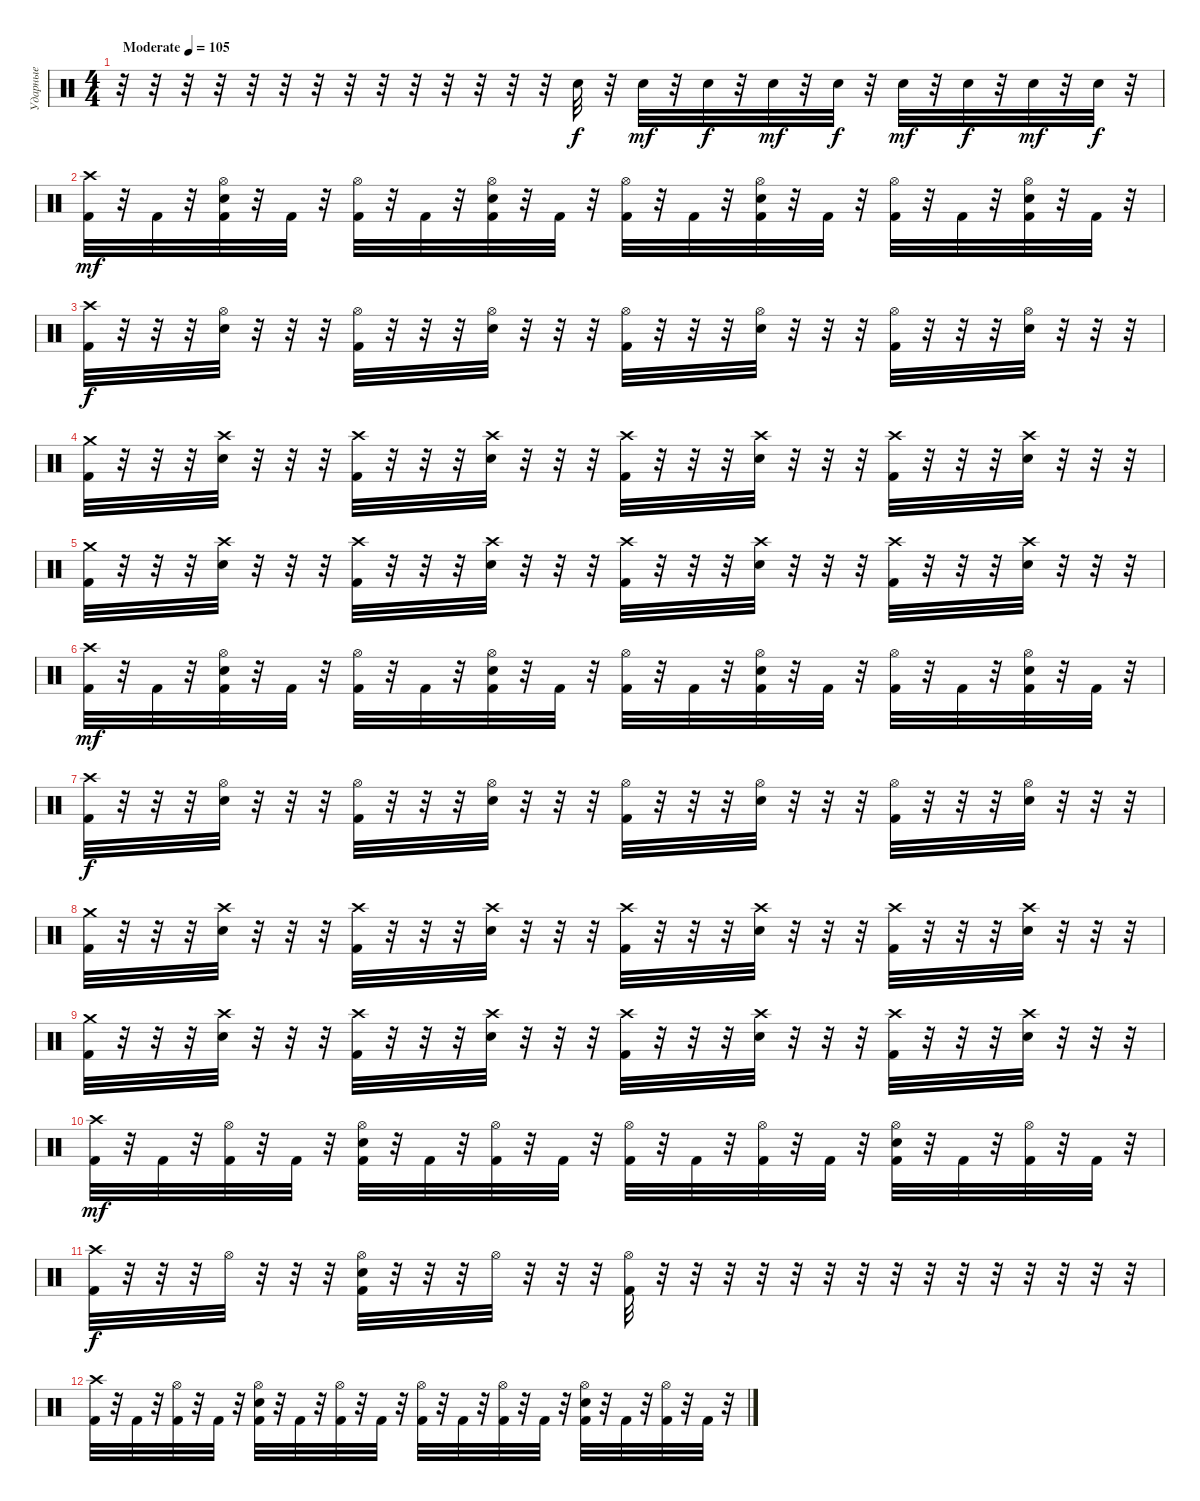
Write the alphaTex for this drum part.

\track ("Ударные" "Ударные") {mute instrument percussion}
\staff {score}
\articulation defaults
\ts (4 4)
\tempo (105 "Moderate")
\clef neutral
\ks c
r.32{dy f} r.32 r.32 r.32 r.32 r.32 r.32 r.32 r.32 r.32 r.32 r.32 r.32 r.32 "Electric Snare (hit)".32 r.32 "Electric Snare (hit)".32{dy mf} r.32 "Electric Snare (hit)".32{dy f} r.32 "Electric Snare (hit)".32{dy mf} r.32 "Electric Snare (hit)".32{dy f} r.32 "Electric Snare (hit)".32{dy mf} r.32 "Electric Snare (hit)".32{dy f} r.32 "Electric Snare (hit)".32{dy mf} r.32 "Electric Snare (hit)".32{dy f} r.32 |
("Crash high (hit)" "Kick (hit) 2").32{dy mf} r.32 "Kick (hit) 2".32 r.32 ("Hi-Hat (open)" "Electric Snare (hit)" "Kick (hit) 2").32 r.32 "Kick (hit) 2".32 r.32 ("Hi-Hat (open)" "Kick (hit) 2").32 r.32 "Kick (hit) 2".32 r.32 ("Hi-Hat (open)" "Electric Snare (hit)" "Kick (hit) 2").32 r.32 "Kick (hit) 2".32 r.32 ("Hi-Hat (open)" "Kick (hit) 2").32 r.32 "Kick (hit) 2".32 r.32 ("Hi-Hat (open)" "Electric Snare (hit)" "Kick (hit) 2").32 r.32 "Kick (hit) 2".32 r.32 ("Hi-Hat (open)" "Kick (hit) 2").32 r.32 "Kick (hit) 2".32 r.32 ("Hi-Hat (open)" "Electric Snare (hit)" "Kick (hit) 2").32 r.32 "Kick (hit) 2".32 r.32 |
("Crash high (hit)" "Kick (hit) 2").32{dy f} r.32 r.32 r.32 ("Hi-Hat (open)" "Electric Snare (hit)").32 r.32 r.32 r.32 ("Hi-Hat (open)" "Kick (hit) 2").32 r.32 r.32 r.32 ("Hi-Hat (open)" "Electric Snare (hit)").32 r.32 r.32 r.32 ("Hi-Hat (open)" "Kick (hit) 2").32 r.32 r.32 r.32 ("Hi-Hat (open)" "Electric Snare (hit)").32 r.32 r.32 r.32 ("Hi-Hat (open)" "Kick (hit) 2").32 r.32 r.32 r.32 ("Hi-Hat (open)" "Electric Snare (hit)").32 r.32 r.32 r.32 |
("Crash medium (hit)" "Kick (hit) 2").32 r.32 r.32 r.32 ("Crash high (hit)" "Electric Snare (hit)").32 r.32 r.32 r.32 ("Crash high (hit)" "Kick (hit) 2").32 r.32 r.32 r.32 ("Crash high (hit)" "Electric Snare (hit)").32 r.32 r.32 r.32 ("Crash high (hit)" "Kick (hit) 2").32 r.32 r.32 r.32 ("Crash high (hit)" "Electric Snare (hit)").32 r.32 r.32 r.32 ("Crash high (hit)" "Kick (hit) 2").32 r.32 r.32 r.32 ("Crash high (hit)" "Electric Snare (hit)").32 r.32 r.32 r.32 |
("Crash medium (hit)" "Kick (hit) 2").32 r.32 r.32 r.32 ("Crash high (hit)" "Electric Snare (hit)").32 r.32 r.32 r.32 ("Crash high (hit)" "Kick (hit) 2").32 r.32 r.32 r.32 ("Crash high (hit)" "Electric Snare (hit)").32 r.32 r.32 r.32 ("Crash high (hit)" "Kick (hit) 2").32 r.32 r.32 r.32 ("Crash high (hit)" "Electric Snare (hit)").32 r.32 r.32 r.32 ("Crash high (hit)" "Kick (hit) 2").32 r.32 r.32 r.32 ("Crash high (hit)" "Electric Snare (hit)").32 r.32 r.32 r.32 |
("Crash high (hit)" "Kick (hit) 2").32{dy mf} r.32 "Kick (hit) 2".32 r.32 ("Hi-Hat (open)" "Electric Snare (hit)" "Kick (hit) 2").32 r.32 "Kick (hit) 2".32 r.32 ("Hi-Hat (open)" "Kick (hit) 2").32 r.32 "Kick (hit) 2".32 r.32 ("Hi-Hat (open)" "Electric Snare (hit)" "Kick (hit) 2").32 r.32 "Kick (hit) 2".32 r.32 ("Hi-Hat (open)" "Kick (hit) 2").32 r.32 "Kick (hit) 2".32 r.32 ("Hi-Hat (open)" "Electric Snare (hit)" "Kick (hit) 2").32 r.32 "Kick (hit) 2".32 r.32 ("Hi-Hat (open)" "Kick (hit) 2").32 r.32 "Kick (hit) 2".32 r.32 ("Hi-Hat (open)" "Electric Snare (hit)" "Kick (hit) 2").32 r.32 "Kick (hit) 2".32 r.32 |
("Crash high (hit)" "Kick (hit) 2").32{dy f} r.32 r.32 r.32 ("Hi-Hat (open)" "Electric Snare (hit)").32 r.32 r.32 r.32 ("Hi-Hat (open)" "Kick (hit) 2").32 r.32 r.32 r.32 ("Hi-Hat (open)" "Electric Snare (hit)").32 r.32 r.32 r.32 ("Hi-Hat (open)" "Kick (hit) 2").32 r.32 r.32 r.32 ("Hi-Hat (open)" "Electric Snare (hit)").32 r.32 r.32 r.32 ("Hi-Hat (open)" "Kick (hit) 2").32 r.32 r.32 r.32 ("Hi-Hat (open)" "Electric Snare (hit)").32 r.32 r.32 r.32 |
("Crash medium (hit)" "Kick (hit) 2").32 r.32 r.32 r.32 ("Crash high (hit)" "Electric Snare (hit)").32 r.32 r.32 r.32 ("Crash high (hit)" "Kick (hit) 2").32 r.32 r.32 r.32 ("Crash high (hit)" "Electric Snare (hit)").32 r.32 r.32 r.32 ("Crash high (hit)" "Kick (hit) 2").32 r.32 r.32 r.32 ("Crash high (hit)" "Electric Snare (hit)").32 r.32 r.32 r.32 ("Crash high (hit)" "Kick (hit) 2").32 r.32 r.32 r.32 ("Crash high (hit)" "Electric Snare (hit)").32 r.32 r.32 r.32 |
("Crash medium (hit)" "Kick (hit) 2").32 r.32 r.32 r.32 ("Crash high (hit)" "Electric Snare (hit)").32 r.32 r.32 r.32 ("Crash high (hit)" "Kick (hit) 2").32 r.32 r.32 r.32 ("Crash high (hit)" "Electric Snare (hit)").32 r.32 r.32 r.32 ("Crash high (hit)" "Kick (hit) 2").32 r.32 r.32 r.32 ("Crash high (hit)" "Electric Snare (hit)").32 r.32 r.32 r.32 ("Crash high (hit)" "Kick (hit) 2").32 r.32 r.32 r.32 ("Crash high (hit)" "Electric Snare (hit)").32 r.32 r.32 r.32 |
("Crash high (hit)" "Kick (hit) 2").32{dy mf} r.32 "Kick (hit) 2".32 r.32 ("Hi-Hat (open)" "Kick (hit) 2").32 r.32 "Kick (hit) 2".32 r.32 ("Hi-Hat (open)" "Electric Snare (hit)" "Kick (hit) 2").32 r.32 "Kick (hit) 2".32 r.32 ("Hi-Hat (open)" "Kick (hit) 2").32 r.32 "Kick (hit) 2".32 r.32 ("Hi-Hat (open)" "Kick (hit) 2").32 r.32 "Kick (hit) 2".32 r.32 ("Hi-Hat (open)" "Kick (hit) 2").32 r.32 "Kick (hit) 2".32 r.32 ("Hi-Hat (open)" "Electric Snare (hit)" "Kick (hit) 2").32 r.32 "Kick (hit) 2".32 r.32 ("Hi-Hat (open)" "Kick (hit) 2").32 r.32 "Kick (hit) 2".32 r.32 |
("Crash high (hit)" "Kick (hit) 2").32{dy f} r.32 r.32 r.32 "Hi-Hat (open)".32 r.32 r.32 r.32 ("Hi-Hat (open)" "Electric Snare (hit)" "Kick (hit) 2").32 r.32 r.32 r.32 "Hi-Hat (open)".32 r.32 r.32 r.32 ("Hi-Hat (open)" "Kick (hit) 2").32 r.32 r.32 r.32 r.32 r.32 r.32 r.32 r.32 r.32 r.32 r.32 r.32 r.32 r.32 r.32 |
("Crash high (hit)" "Kick (hit) 2").32 r.32 "Kick (hit) 2".32 r.32 ("Hi-Hat (open)" "Kick (hit) 2").32 r.32 "Kick (hit) 2".32 r.32 ("Hi-Hat (open)" "Electric Snare (hit)" "Kick (hit) 2").32 r.32 "Kick (hit) 2".32 r.32 ("Hi-Hat (open)" "Kick (hit) 2").32 r.32 "Kick (hit) 2".32 r.32 ("Hi-Hat (open)" "Kick (hit) 2").32 r.32 "Kick (hit) 2".32 r.32 ("Hi-Hat (open)" "Kick (hit) 2").32 r.32 "Kick (hit) 2".32 r.32 ("Hi-Hat (open)" "Electric Snare (hit)" "Kick (hit) 2").32 r.32 "Kick (hit) 2".32 r.32 ("Hi-Hat (open)" "Kick (hit) 2").32 r.32 "Kick (hit) 2".32 r.32
